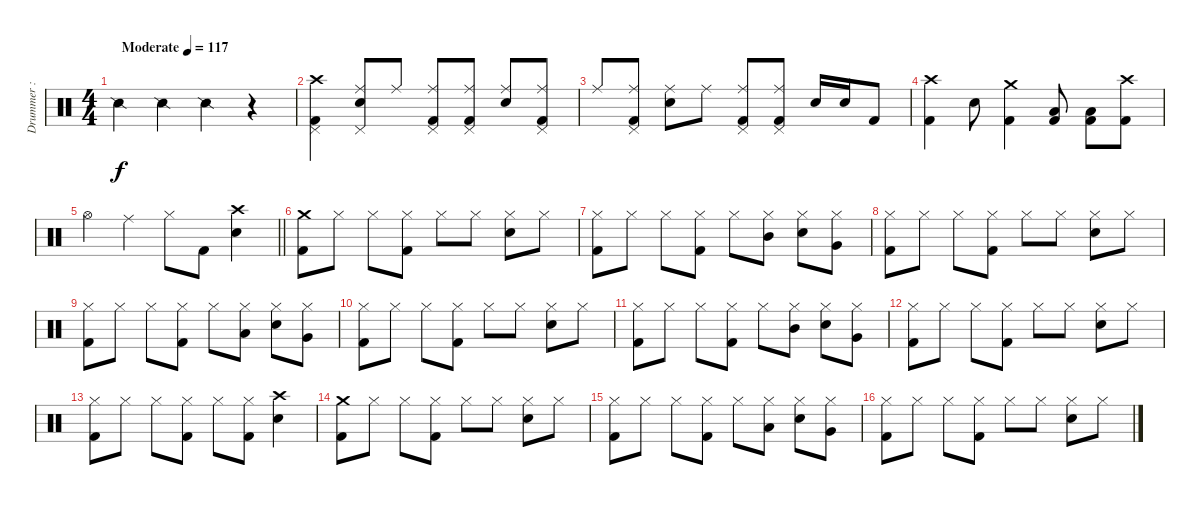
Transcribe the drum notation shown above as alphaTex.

\track ("Drummer : Tainaka Ritsu - San" "Drummer : ") {instrument percussion}
\staff {score}
\articulation defaults
\ts (4 4)
\tempo (117 "Moderate")
\clef neutral
\ks c "Snare (side stick) 2".4{dy f} "Snare (side stick) 2".4 "Snare (side stick) 2".4
r.4 |
("Crash high (hit)" "Pedal Hi-Hat (hit)" "Kick (hit) 2").4 ("Ride (middle)" "Pedal Hi-Hat (hit)" "Snare (hit) 2").8 "Ride (middle)".8 ("Ride (middle)" "Pedal Hi-Hat (hit)" "Kick (hit) 2").8 ("Ride (middle)" "Pedal Hi-Hat (hit)" "Kick (hit) 2").8 ("Ride (middle)" "Snare (hit) 2").8 ("Ride (middle)" "Pedal Hi-Hat (hit)" "Kick (hit) 2").8 |
"Ride (middle)".8 ("Ride (middle)" "Pedal Hi-Hat (hit)" "Kick (hit) 2").8 ("Ride (middle)" "Snare (hit) 2").8 "Ride (middle)".8 ("Ride (middle)" "Pedal Hi-Hat (hit)" "Kick (hit) 2").8 ("Ride (middle)" "Pedal Hi-Hat (hit)" "Kick (hit) 2").8 "Snare (hit) 2".16 "Snare (hit) 2".16 "Kick (hit) 2".8 |
("Crash high (hit)" "Kick (hit) 2").4 "Snare (hit) 2".8 ("Crash medium (hit)" "Kick (hit) 2").4 ("Low Tom (hit)" "Kick (hit) 2").8 ("Low Tom (hit)" "Kick (hit) 2").8 ("Crash high (hit)" "Kick (hit) 2").8 |
\barLineRight lightlight "Hi-Hat (open)".4 "Ride (middle)".4 "Hi-Hat (closed)".8 "Kick (hit) 2".8
("Crash high (hit)" "Snare (hit) 2").4 |
("Crash medium (hit)" "Kick (hit) 2").8 "Hi-Hat (closed)".8 "Hi-Hat (closed)".8 ("Hi-Hat (closed)" "Kick (hit) 2").8 "Hi-Hat (closed)".8 "Hi-Hat (closed)".8 ("Hi-Hat (closed)" "Snare (hit) 2").8 "Hi-Hat (closed)".8 |
("Hi-Hat (closed)" "Kick (hit) 2").8 "Hi-Hat (closed)".8 "Hi-Hat (closed)".8 ("Hi-Hat (closed)" "Kick (hit) 2").8 "Hi-Hat (closed)".8 ("Mid Tom (hit)" "Hi-Hat (closed)").8 ("Hi-Hat (closed)" "Snare (hit) 2").8 ("Very Low Tom (hit)" "Hi-Hat (closed)").8 |
("Hi-Hat (closed)" "Kick (hit) 2").8 "Hi-Hat (closed)".8 "Hi-Hat (closed)".8 ("Hi-Hat (closed)" "Kick (hit) 2").8 "Hi-Hat (closed)".8 "Hi-Hat (closed)".8 ("Hi-Hat (closed)" "Snare (hit) 2").8 "Hi-Hat (closed)".8 |
("Hi-Hat (closed)" "Kick (hit) 2").8 "Hi-Hat (closed)".8 "Hi-Hat (closed)".8 ("Hi-Hat (closed)" "Kick (hit) 2").8 "Hi-Hat (closed)".8 ("Low Tom (hit)" "Hi-Hat (closed)").8 ("Hi-Hat (closed)" "Snare (hit) 2").8 ("Very Low Tom (hit)" "Hi-Hat (closed)").8 |
("Hi-Hat (closed)" "Kick (hit) 2").8 "Hi-Hat (closed)".8 "Hi-Hat (closed)".8 ("Hi-Hat (closed)" "Kick (hit) 2").8 "Hi-Hat (closed)".8 "Hi-Hat (closed)".8 ("Hi-Hat (closed)" "Snare (hit) 2").8 "Hi-Hat (closed)".8 |
("Hi-Hat (closed)" "Kick (hit) 2").8 "Hi-Hat (closed)".8 "Hi-Hat (closed)".8 ("Hi-Hat (closed)" "Kick (hit) 2").8 "Hi-Hat (closed)".8 ("Mid Tom (hit)" "Hi-Hat (closed)").8 ("Hi-Hat (closed)" "Snare (hit) 2").8 ("Very Low Tom (hit)" "Hi-Hat (closed)").8 |
("Hi-Hat (closed)" "Kick (hit) 2").8 "Hi-Hat (closed)".8 "Hi-Hat (closed)".8 ("Hi-Hat (closed)" "Kick (hit) 2").8 "Hi-Hat (closed)".8 "Hi-Hat (closed)".8 ("Hi-Hat (closed)" "Snare (hit) 2").8 "Hi-Hat (closed)".8 |
("Hi-Hat (closed)" "Kick (hit) 2").8 "Hi-Hat (closed)".8 "Hi-Hat (closed)".8 ("Hi-Hat (closed)" "Kick (hit) 2").8 "Hi-Hat (closed)".8 ("Hi-Hat (closed)" "Kick (hit) 2").8 ("Crash high (hit)" "Snare (hit) 2").4 |
("Crash medium (hit)" "Kick (hit) 2").8 "Hi-Hat (closed)".8 "Hi-Hat (closed)".8 ("Hi-Hat (closed)" "Kick (hit) 2").8 "Hi-Hat (closed)".8 "Hi-Hat (closed)".8 ("Hi-Hat (closed)" "Snare (hit) 2").8 "Hi-Hat (closed)".8 |
("Hi-Hat (closed)" "Kick (hit) 2").8 "Hi-Hat (closed)".8 "Hi-Hat (closed)".8 ("Hi-Hat (closed)" "Kick (hit) 2").8 "Hi-Hat (closed)".8 ("Low Tom (hit)" "Hi-Hat (closed)").8 ("Hi-Hat (closed)" "Snare (hit) 2").8 ("Very Low Tom (hit)" "Hi-Hat (closed)").8 |
("Hi-Hat (closed)" "Kick (hit) 2").8 "Hi-Hat (closed)".8 "Hi-Hat (closed)".8 ("Hi-Hat (closed)" "Kick (hit) 2").8 "Hi-Hat (closed)".8 "Hi-Hat (closed)".8 ("Hi-Hat (closed)" "Snare (hit) 2").8 "Hi-Hat (closed)".8
